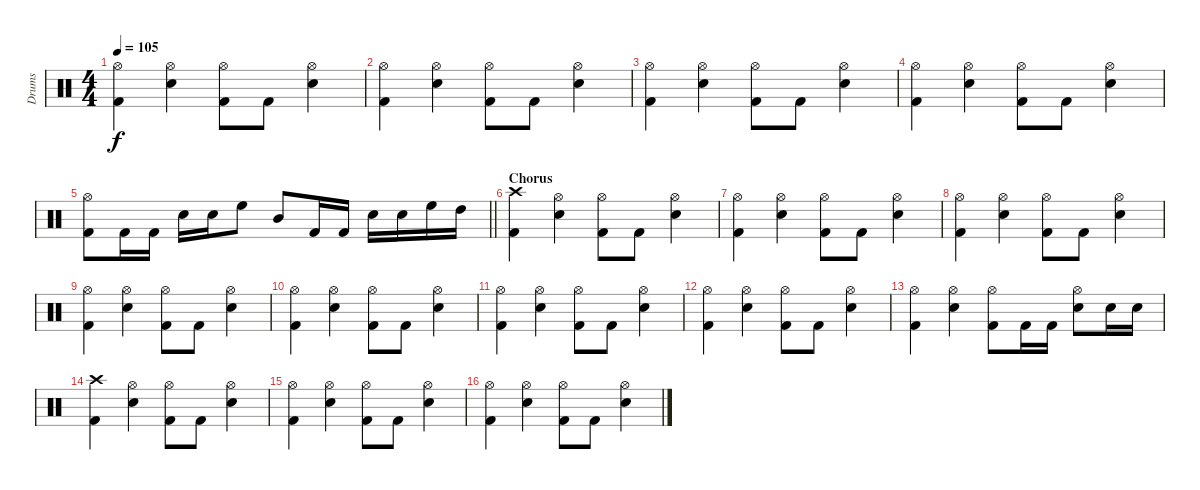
\track ("Drums" "Drums") {instrument percussion}
\staff {score}
\articulation defaults
\ts (4 4)
\tempo 105
\clef neutral
\ks c
("Hi-Hat (open)" "Kick (hit) 2").4{dy f} ("Electric Snare (hit)" "Hi-Hat (open)").4 ("Hi-Hat (open)" "Kick (hit) 2").8 "Kick (hit) 2".8 ("Hi-Hat (open)" "Electric Snare (hit)").4 |
("Hi-Hat (open)" "Kick (hit) 2").4 ("Electric Snare (hit)" "Hi-Hat (open)").4 ("Hi-Hat (open)" "Kick (hit) 2").8 "Kick (hit) 2".8 ("Hi-Hat (open)" "Electric Snare (hit)").4 |
("Hi-Hat (open)" "Kick (hit) 2").4 ("Electric Snare (hit)" "Hi-Hat (open)").4 ("Hi-Hat (open)" "Kick (hit) 2").8 "Kick (hit) 2".8 ("Hi-Hat (open)" "Electric Snare (hit)").4 |
("Hi-Hat (open)" "Kick (hit) 2").4 ("Electric Snare (hit)" "Hi-Hat (open)").4 ("Hi-Hat (open)" "Kick (hit) 2").8 "Kick (hit) 2".8 ("Hi-Hat (open)" "Electric Snare (hit)").4 |
\barLineRight lightlight
("Hi-Hat (open)" "Kick (hit) 2").8 "Kick (hit) 2".16 "Kick (hit) 2".16 "Electric Snare (hit)".16 "Electric Snare (hit)".16 "High Floor Tom (hit)".8 "Mid Tom (hit)".8 "Kick (hit) 2".16 "Kick (hit) 2".16 "Electric Snare (hit)".16 "Electric Snare (hit)".16 "High Floor Tom (hit)".16 "High Tom (hit)".16 |
\section ("" "Chorus")
("Crash high (hit)" "Kick (hit) 2").4 ("Electric Snare (hit)" "Hi-Hat (open)").4 ("Hi-Hat (open)" "Kick (hit) 2").8 "Kick (hit) 2".8 ("Hi-Hat (open)" "Electric Snare (hit)").4 |
("Hi-Hat (open)" "Kick (hit) 2").4 ("Electric Snare (hit)" "Hi-Hat (open)").4 ("Hi-Hat (open)" "Kick (hit) 2").8 "Kick (hit) 2".8 ("Hi-Hat (open)" "Electric Snare (hit)").4 |
("Hi-Hat (open)" "Kick (hit) 2").4 ("Electric Snare (hit)" "Hi-Hat (open)").4 ("Hi-Hat (open)" "Kick (hit) 2").8 "Kick (hit) 2".8 ("Hi-Hat (open)" "Electric Snare (hit)").4 |
("Hi-Hat (open)" "Kick (hit) 2").4 ("Electric Snare (hit)" "Hi-Hat (open)").4 ("Hi-Hat (open)" "Kick (hit) 2").8 "Kick (hit) 2".8 ("Hi-Hat (open)" "Electric Snare (hit)").4 |
("Hi-Hat (open)" "Kick (hit) 2").4 ("Electric Snare (hit)" "Hi-Hat (open)").4 ("Hi-Hat (open)" "Kick (hit) 2").8 "Kick (hit) 2".8 ("Hi-Hat (open)" "Electric Snare (hit)").4 |
("Hi-Hat (open)" "Kick (hit) 2").4 ("Electric Snare (hit)" "Hi-Hat (open)").4 ("Hi-Hat (open)" "Kick (hit) 2").8 "Kick (hit) 2".8 ("Hi-Hat (open)" "Electric Snare (hit)").4 |
("Hi-Hat (open)" "Kick (hit) 2").4 ("Electric Snare (hit)" "Hi-Hat (open)").4 ("Hi-Hat (open)" "Kick (hit) 2").8 "Kick (hit) 2".8 ("Hi-Hat (open)" "Electric Snare (hit)").4 |
("Hi-Hat (open)" "Kick (hit) 2").4 ("Electric Snare (hit)" "Hi-Hat (open)").4 ("Kick (hit) 2" "Hi-Hat (open)").8 "Kick (hit) 2".16 "Kick (hit) 2".16 ("Hi-Hat (open)" "Electric Snare (hit)").8 "Electric Snare (hit)".16 "Electric Snare (hit)".16 |
("Crash high (hit)" "Kick (hit) 2").4 ("Electric Snare (hit)" "Hi-Hat (open)").4 ("Hi-Hat (open)" "Kick (hit) 2").8 "Kick (hit) 2".8 ("Hi-Hat (open)" "Electric Snare (hit)").4 |
("Hi-Hat (open)" "Kick (hit) 2").4 ("Electric Snare (hit)" "Hi-Hat (open)").4 ("Hi-Hat (open)" "Kick (hit) 2").8 "Kick (hit) 2".8 ("Hi-Hat (open)" "Electric Snare (hit)").4 |
("Hi-Hat (open)" "Kick (hit) 2").4 ("Electric Snare (hit)" "Hi-Hat (open)").4 ("Hi-Hat (open)" "Kick (hit) 2").8 "Kick (hit) 2".8 ("Hi-Hat (open)" "Electric Snare (hit)").4
